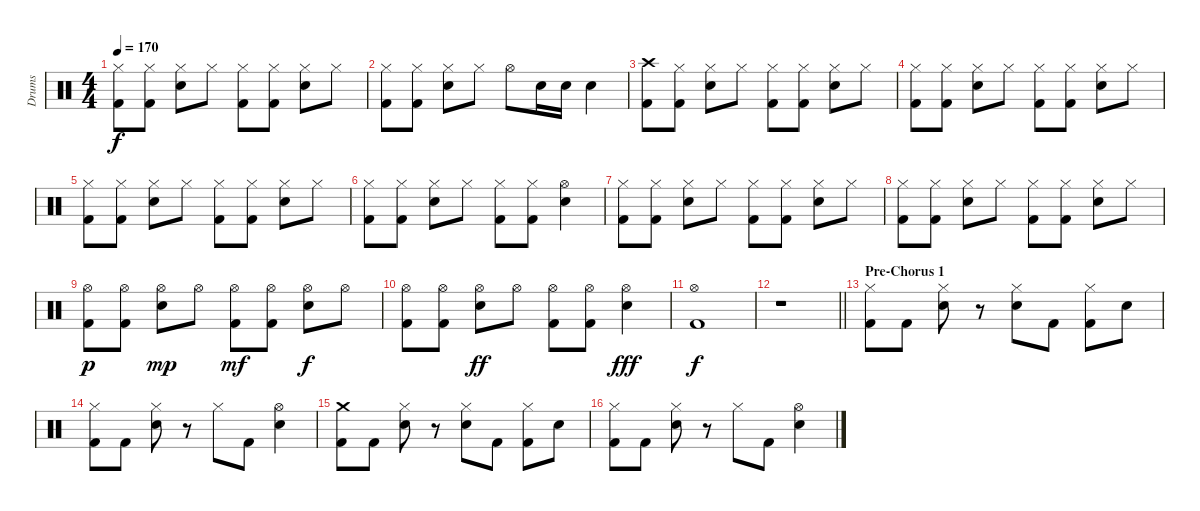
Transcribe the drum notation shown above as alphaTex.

\track ("Drums" "Drums") {instrument percussion}
\staff {score}
\articulation defaults
\ts (4 4)
\tempo 170
\clef neutral
\ks c
("Hi-Hat (closed)" "Kick (hit) 2").8{dy f} ("Hi-Hat (closed)" "Kick (hit) 2").8 ("Hi-Hat (closed)" "Snare (hit) 2").8 "Hi-Hat (closed)".8 ("Hi-Hat (closed)" "Kick (hit) 2").8 ("Hi-Hat (closed)" "Kick (hit) 2").8 ("Hi-Hat (closed)" "Snare (hit) 2").8 "Hi-Hat (closed)".8 |
("Hi-Hat (closed)" "Kick (hit) 2").8 ("Hi-Hat (closed)" "Kick (hit) 2").8 ("Hi-Hat (closed)" "Snare (hit) 2").8 "Hi-Hat (closed)".8 "Hi-Hat (open)".8 "Snare (hit) 2".16 "Snare (hit) 2".16 "Snare (hit) 2".4 |
("Crash high (hit)" "Kick (hit) 2").8 ("Hi-Hat (closed)" "Kick (hit) 2").8 ("Hi-Hat (closed)" "Snare (hit) 2").8 "Hi-Hat (closed)".8 ("Hi-Hat (closed)" "Kick (hit) 2").8 ("Hi-Hat (closed)" "Kick (hit) 2").8 ("Hi-Hat (closed)" "Snare (hit) 2").8 "Hi-Hat (closed)".8 |
("Hi-Hat (closed)" "Kick (hit) 2").8 ("Hi-Hat (closed)" "Kick (hit) 2").8 ("Hi-Hat (closed)" "Snare (hit) 2").8 "Hi-Hat (closed)".8 ("Hi-Hat (closed)" "Kick (hit) 2").8 ("Hi-Hat (closed)" "Kick (hit) 2").8 ("Hi-Hat (closed)" "Snare (hit) 2").8 "Hi-Hat (closed)".8 |
("Hi-Hat (closed)" "Kick (hit) 2").8 ("Hi-Hat (closed)" "Kick (hit) 2").8 ("Hi-Hat (closed)" "Snare (hit) 2").8 "Hi-Hat (closed)".8 ("Hi-Hat (closed)" "Kick (hit) 2").8 ("Hi-Hat (closed)" "Kick (hit) 2").8 ("Hi-Hat (closed)" "Snare (hit) 2").8 "Hi-Hat (closed)".8 |
("Hi-Hat (closed)" "Kick (hit) 2").8 ("Hi-Hat (closed)" "Kick (hit) 2").8 ("Hi-Hat (closed)" "Snare (hit) 2").8 "Hi-Hat (closed)".8 ("Hi-Hat (closed)" "Kick (hit) 2").8 ("Hi-Hat (closed)" "Kick (hit) 2").8 ("Hi-Hat (open)" "Snare (hit) 2").4 |
("Hi-Hat (closed)" "Kick (hit) 2").8 ("Hi-Hat (closed)" "Kick (hit) 2").8 ("Hi-Hat (closed)" "Snare (hit) 2").8 "Hi-Hat (closed)".8 ("Hi-Hat (closed)" "Kick (hit) 2").8 ("Hi-Hat (closed)" "Kick (hit) 2").8 ("Hi-Hat (closed)" "Snare (hit) 2").8 "Hi-Hat (closed)".8 |
("Hi-Hat (closed)" "Kick (hit) 2").8 ("Hi-Hat (closed)" "Kick (hit) 2").8 ("Hi-Hat (closed)" "Snare (hit) 2").8 "Hi-Hat (closed)".8 ("Hi-Hat (closed)" "Kick (hit) 2").8 ("Hi-Hat (closed)" "Kick (hit) 2").8 ("Hi-Hat (closed)" "Snare (hit) 2").8 "Hi-Hat (closed)".8 |
("Hi-Hat (open)" "Kick (hit) 2").8{dy p} ("Hi-Hat (open)" "Kick (hit) 2").8 ("Hi-Hat (open)" "Snare (hit) 2").8{dy mp} "Hi-Hat (open)".8 ("Hi-Hat (open)" "Kick (hit) 2").8{dy mf} ("Hi-Hat (open)" "Kick (hit) 2").8 ("Hi-Hat (open)" "Snare (hit) 2").8{dy f} "Hi-Hat (open)".8 |
("Hi-Hat (open)" "Kick (hit) 2").8 ("Hi-Hat (open)" "Kick (hit) 2").8 ("Hi-Hat (open)" "Snare (hit) 2").8{dy ff} "Hi-Hat (open)".8 ("Hi-Hat (open)" "Kick (hit) 2").8 ("Hi-Hat (open)" "Kick (hit) 2").8 ("Hi-Hat (open)" "Snare (hit) 2").4{dy fff} |
("Hi-Hat (open)" "Kick (hit) 2").1{dy f} |
\barLineRight lightlight
r.1 |
\section ("" "Pre-Chorus 1")
("Hi-Hat (closed)" "Kick (hit) 2").8 "Kick (hit) 2".8 ("Hi-Hat (closed)" "Snare (hit) 2").8 r.8 ("Hi-Hat (closed)" "Snare (hit) 2").8 "Kick (hit) 2".8 ("Hi-Hat (closed)" "Kick (hit) 2").8 "Snare (hit) 2".8 |
("Hi-Hat (closed)" "Kick (hit) 2").8 "Kick (hit) 2".8 ("Hi-Hat (closed)" "Snare (hit) 2").8 r.8 "Hi-Hat (closed)".8 "Kick (hit) 2".8 ("Hi-Hat (open)" "Snare (hit) 2").4 |
("Crash medium (hit)" "Kick (hit) 2").8 "Kick (hit) 2".8 ("Hi-Hat (closed)" "Snare (hit) 2").8 r.8 ("Hi-Hat (closed)" "Snare (hit) 2").8 "Kick (hit) 2".8 ("Hi-Hat (closed)" "Kick (hit) 2").8 "Snare (hit) 2".8 |
("Hi-Hat (closed)" "Kick (hit) 2").8 "Kick (hit) 2".8 ("Hi-Hat (closed)" "Snare (hit) 2").8 r.8 "Hi-Hat (closed)".8 "Kick (hit) 2".8 ("Hi-Hat (open)" "Snare (hit) 2").4
